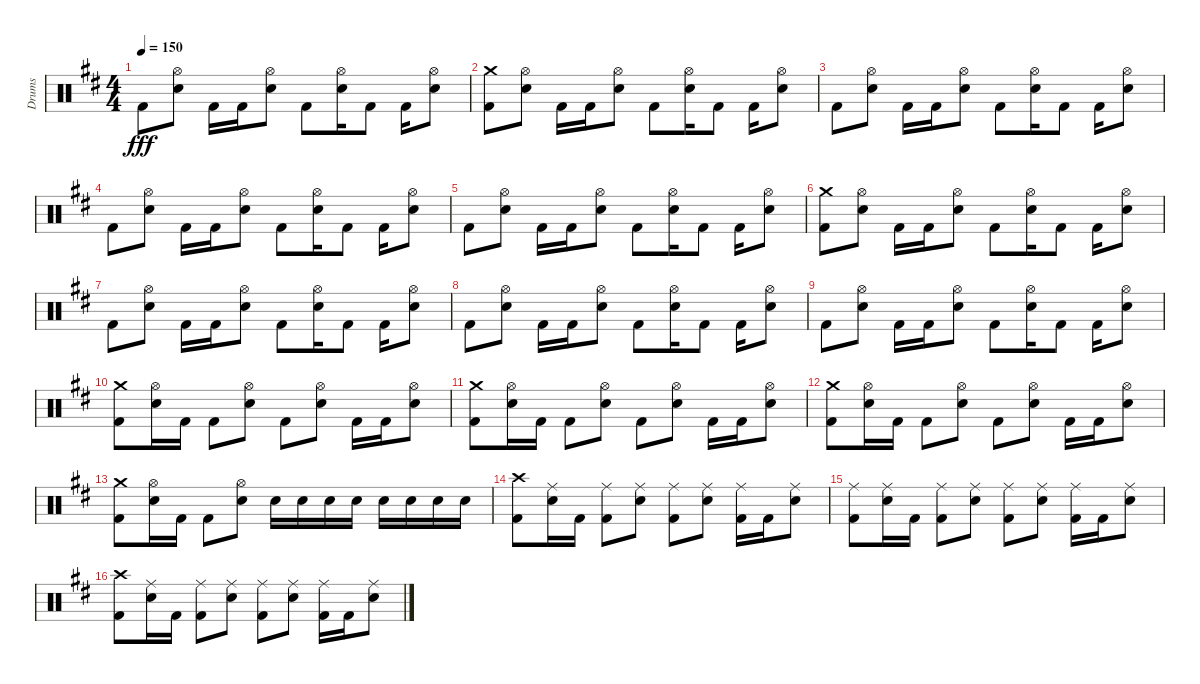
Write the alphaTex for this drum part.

\track ("Drums" "Drums") {instrument percussion}
\staff {score}
\articulation defaults
\ts (4 4)
\tempo 150
\clef neutral
\ks d "Kick (hit) 2".8{dy fff}
("Hi-Hat (open)" "Electric Snare (hit)").8 "Kick (hit) 2".16 "Kick (hit) 2".16 ("Hi-Hat (open)" "Electric Snare (hit)").8 "Kick (hit) 2".8 ("Hi-Hat (open)" "Electric Snare (hit)").16 "Kick (hit) 2".8 "Kick (hit) 2".16 ("Hi-Hat (open)" "Electric Snare (hit)").8 |
("Crash medium (hit)" "Kick (hit) 2").8 ("Hi-Hat (open)" "Electric Snare (hit)").8 "Kick (hit) 2".16 "Kick (hit) 2".16 ("Hi-Hat (open)" "Electric Snare (hit)").8 "Kick (hit) 2".8 ("Hi-Hat (open)" "Electric Snare (hit)").16 "Kick (hit) 2".8 "Kick (hit) 2".16 ("Hi-Hat (open)" "Electric Snare (hit)").8 |
"Kick (hit) 2".8 ("Hi-Hat (open)" "Electric Snare (hit)").8 "Kick (hit) 2".16 "Kick (hit) 2".16 ("Hi-Hat (open)" "Electric Snare (hit)").8 "Kick (hit) 2".8 ("Hi-Hat (open)" "Electric Snare (hit)").16 "Kick (hit) 2".8 "Kick (hit) 2".16 ("Hi-Hat (open)" "Electric Snare (hit)").8 |
"Kick (hit) 2".8 ("Hi-Hat (open)" "Electric Snare (hit)").8 "Kick (hit) 2".16 "Kick (hit) 2".16 ("Hi-Hat (open)" "Electric Snare (hit)").8 "Kick (hit) 2".8 ("Hi-Hat (open)" "Electric Snare (hit)").16 "Kick (hit) 2".8 "Kick (hit) 2".16 ("Hi-Hat (open)" "Electric Snare (hit)").8 |
"Kick (hit) 2".8 ("Hi-Hat (open)" "Electric Snare (hit)").8 "Kick (hit) 2".16 "Kick (hit) 2".16 ("Hi-Hat (open)" "Electric Snare (hit)").8 "Kick (hit) 2".8 ("Hi-Hat (open)" "Electric Snare (hit)").16 "Kick (hit) 2".8 "Kick (hit) 2".16 ("Hi-Hat (open)" "Electric Snare (hit)").8 |
("Crash medium (hit)" "Kick (hit) 2").8 ("Hi-Hat (open)" "Electric Snare (hit)").8 "Kick (hit) 2".16 "Kick (hit) 2".16 ("Hi-Hat (open)" "Electric Snare (hit)").8 "Kick (hit) 2".8 ("Hi-Hat (open)" "Electric Snare (hit)").16 "Kick (hit) 2".8 "Kick (hit) 2".16 ("Hi-Hat (open)" "Electric Snare (hit)").8 |
"Kick (hit) 2".8 ("Hi-Hat (open)" "Electric Snare (hit)").8 "Kick (hit) 2".16 "Kick (hit) 2".16 ("Hi-Hat (open)" "Electric Snare (hit)").8 "Kick (hit) 2".8 ("Hi-Hat (open)" "Electric Snare (hit)").16 "Kick (hit) 2".8 "Kick (hit) 2".16 ("Hi-Hat (open)" "Electric Snare (hit)").8 |
"Kick (hit) 2".8 ("Hi-Hat (open)" "Electric Snare (hit)").8 "Kick (hit) 2".16 "Kick (hit) 2".16 ("Hi-Hat (open)" "Electric Snare (hit)").8 "Kick (hit) 2".8 ("Hi-Hat (open)" "Electric Snare (hit)").16 "Kick (hit) 2".8 "Kick (hit) 2".16 ("Hi-Hat (open)" "Electric Snare (hit)").8 |
"Kick (hit) 2".8 ("Hi-Hat (open)" "Electric Snare (hit)").8 "Kick (hit) 2".16 "Kick (hit) 2".16 ("Hi-Hat (open)" "Electric Snare (hit)").8 "Kick (hit) 2".8 ("Hi-Hat (open)" "Electric Snare (hit)").16 "Kick (hit) 2".8 "Kick (hit) 2".16 ("Hi-Hat (open)" "Electric Snare (hit)").8 |
("Crash medium (hit)" "Kick (hit) 2").8 ("Hi-Hat (open)" "Electric Snare (hit)").16 "Kick (hit) 2".16 "Kick (hit) 2".8 ("Hi-Hat (open)" "Electric Snare (hit)").8 "Kick (hit) 2".8 ("Hi-Hat (open)" "Electric Snare (hit)").8 "Kick (hit) 2".16 "Kick (hit) 2".16 ("Hi-Hat (open)" "Electric Snare (hit)").8 |
("Crash medium (hit)" "Kick (hit) 2").8 ("Hi-Hat (open)" "Electric Snare (hit)").16 "Kick (hit) 2".16 "Kick (hit) 2".8 ("Hi-Hat (open)" "Electric Snare (hit)").8 "Kick (hit) 2".8 ("Hi-Hat (open)" "Electric Snare (hit)").8 "Kick (hit) 2".16 "Kick (hit) 2".16 ("Hi-Hat (open)" "Electric Snare (hit)").8 |
("Crash medium (hit)" "Kick (hit) 2").8 ("Hi-Hat (open)" "Electric Snare (hit)").16 "Kick (hit) 2".16 "Kick (hit) 2".8 ("Hi-Hat (open)" "Electric Snare (hit)").8 "Kick (hit) 2".8 ("Hi-Hat (open)" "Electric Snare (hit)").8 "Kick (hit) 2".16 "Kick (hit) 2".16 ("Hi-Hat (open)" "Electric Snare (hit)").8 |
("Crash medium (hit)" "Kick (hit) 2").8 ("Hi-Hat (open)" "Electric Snare (hit)").16 "Kick (hit) 2".16 "Kick (hit) 2".8 ("Hi-Hat (open)" "Electric Snare (hit)").8 "Electric Snare (hit)".16 "Electric Snare (hit)".16 "Electric Snare (hit)".16 "Electric Snare (hit)".16 "Electric Snare (hit)".16 "Electric Snare (hit)".16 "Electric Snare (hit)".16 "Electric Snare (hit)".16 |
("Crash high (hit)" "Kick (hit) 2").8 ("Ride (middle)" "Electric Snare (hit)").16 "Kick (hit) 2".16 ("Ride (middle)" "Kick (hit) 2").8 ("Ride (middle)" "Electric Snare (hit)").8 ("Ride (middle)" "Kick (hit) 2").8 ("Ride (middle)" "Electric Snare (hit)").8 ("Ride (middle)" "Kick (hit) 2").16 "Kick (hit) 2".16 ("Ride (middle)" "Electric Snare (hit)").8 |
("Ride (middle)" "Kick (hit) 2").8 ("Ride (middle)" "Electric Snare (hit)").16 "Kick (hit) 2".16 ("Ride (middle)" "Kick (hit) 2").8 ("Ride (middle)" "Electric Snare (hit)").8 ("Ride (middle)" "Kick (hit) 2").8 ("Ride (middle)" "Electric Snare (hit)").8 ("Ride (middle)" "Kick (hit) 2").16 "Kick (hit) 2".16 ("Ride (middle)" "Electric Snare (hit)").8 |
("Crash high (hit)" "Kick (hit) 2").8 ("Ride (middle)" "Electric Snare (hit)").16 "Kick (hit) 2".16 ("Ride (middle)" "Kick (hit) 2").8 ("Ride (middle)" "Electric Snare (hit)").8 ("Ride (middle)" "Kick (hit) 2").8 ("Ride (middle)" "Electric Snare (hit)").8 ("Ride (middle)" "Kick (hit) 2").16 "Kick (hit) 2".16 ("Ride (middle)" "Electric Snare (hit)").8
